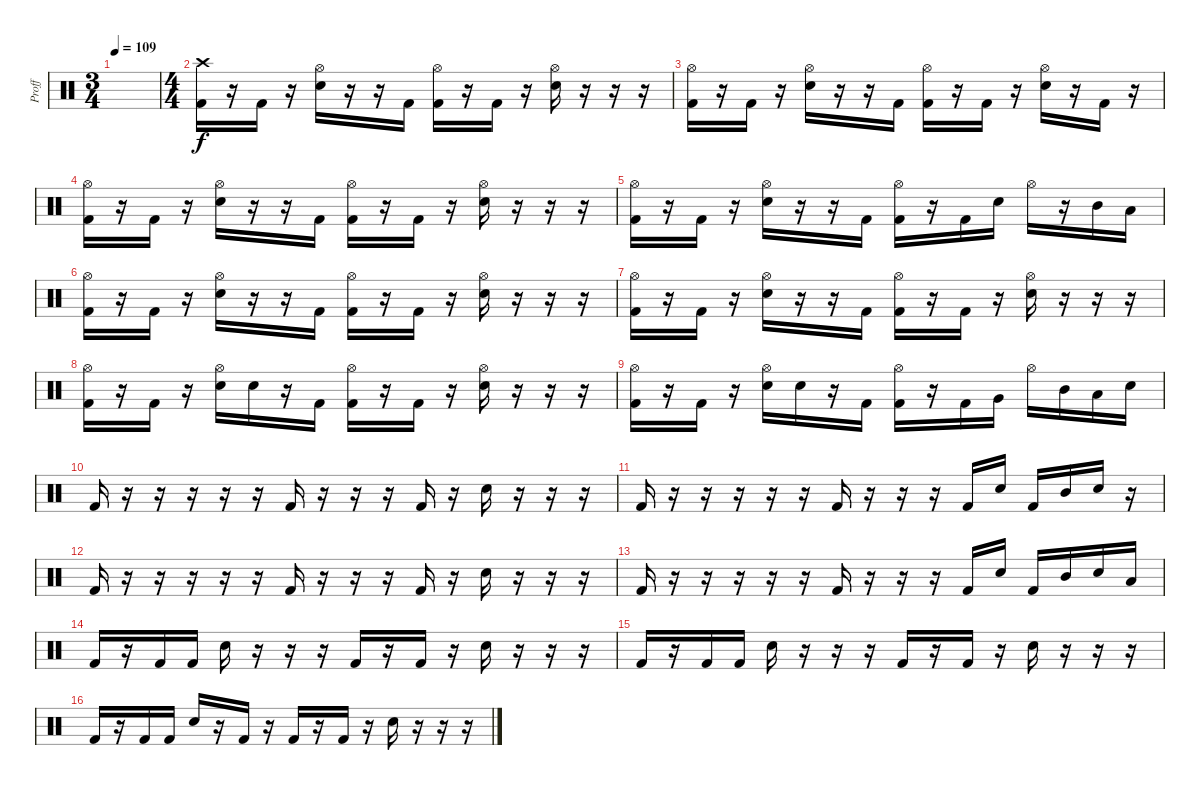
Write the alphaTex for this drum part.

\track ("Proff" "Proff") {instrument percussion}
\staff {score}
\articulation defaults
\ts (3 4)
\tempo 109
\clef neutral
\ks c
|
\ts (4 4)
("Crash high (hit)" "Kick (hit) 2").16 r.16 "Kick (hit) 2".16 r.16 ("Hi-Hat (open)" "Electric Snare (hit)").16 r.16 r.16 "Kick (hit) 2".16 ("Hi-Hat (open)" "Kick (hit) 2").16 r.16 "Kick (hit) 2".16 r.16 ("Hi-Hat (open)" "Electric Snare (hit)").16 r.16 r.16 r.16 |
("Hi-Hat (open)" "Kick (hit) 2").16 r.16 "Kick (hit) 2".16 r.16 ("Hi-Hat (open)" "Electric Snare (hit)").16 r.16 r.16 "Kick (hit) 2".16 ("Hi-Hat (open)" "Kick (hit) 2").16 r.16 "Kick (hit) 2".16 r.16 ("Hi-Hat (open)" "Electric Snare (hit)").16 r.16 "Kick (hit) 2".16 r.16 |
("Hi-Hat (open)" "Kick (hit) 2").16 r.16 "Kick (hit) 2".16 r.16 ("Hi-Hat (open)" "Electric Snare (hit)").16 r.16 r.16 "Kick (hit) 2".16 ("Hi-Hat (open)" "Kick (hit) 2").16 r.16 "Kick (hit) 2".16 r.16 ("Hi-Hat (open)" "Electric Snare (hit)").16 r.16 r.16 r.16 |
("Hi-Hat (open)" "Kick (hit) 2").16 r.16 "Kick (hit) 2".16 r.16 ("Hi-Hat (open)" "Electric Snare (hit)").16 r.16 r.16 "Kick (hit) 2".16 ("Hi-Hat (open)" "Kick (hit) 2").16 r.16 "Kick (hit) 2".16 "Electric Snare (hit)".16 "Hi-Hat (open)".16 r.16 "Mid Tom (hit)".16 "Low Tom (hit)".16 |
("Hi-Hat (open)" "Kick (hit) 2").16 r.16 "Kick (hit) 2".16 r.16 ("Hi-Hat (open)" "Electric Snare (hit)").16 r.16 r.16 "Kick (hit) 2".16 ("Hi-Hat (open)" "Kick (hit) 2").16 r.16 "Kick (hit) 2".16 r.16 ("Hi-Hat (open)" "Electric Snare (hit)").16 r.16 r.16 r.16 |
("Hi-Hat (open)" "Kick (hit) 2").16 r.16 "Kick (hit) 2".16 r.16 ("Hi-Hat (open)" "Electric Snare (hit)").16 r.16 r.16 "Kick (hit) 2".16 ("Hi-Hat (open)" "Kick (hit) 2").16 r.16 "Kick (hit) 2".16 r.16 ("Hi-Hat (open)" "Electric Snare (hit)").16 r.16 r.16 r.16 |
("Hi-Hat (open)" "Kick (hit) 2").16 r.16 "Kick (hit) 2".16 r.16 ("Hi-Hat (open)" "Electric Snare (hit)").16 "Electric Snare (hit)".16 r.16 "Kick (hit) 2".16 ("Hi-Hat (open)" "Kick (hit) 2").16 r.16 "Kick (hit) 2".16 r.16 ("Hi-Hat (open)" "Electric Snare (hit)").16 r.16 r.16 r.16 |
("Hi-Hat (open)" "Kick (hit) 2").16 r.16 "Kick (hit) 2".16 r.16 ("Hi-Hat (open)" "Electric Snare (hit)").16 "Electric Snare (hit)".16 r.16 "Kick (hit) 2".16 ("Hi-Hat (open)" "Kick (hit) 2").16 r.16 "Kick (hit) 2".16 "Very Low Tom (hit)".16 "Hi-Hat (open)".16 "Mid Tom (hit)".16 "Low Tom (hit)".16 "Electric Snare (hit)".16 |
"Kick (hit) 2".16 r.16 r.16 r.16 r.16 r.16 "Kick (hit) 2".16 r.16 r.16 r.16 "Kick (hit) 2".16 r.16 "Electric Snare (hit)".16 r.16 r.16 r.16 |
"Kick (hit) 2".16 r.16 r.16 r.16 r.16 r.16 "Kick (hit) 2".16 r.16 r.16 r.16 "Kick (hit) 2".16 "Electric Snare (hit)".16 "Kick (hit) 2".16 "Mid Tom (hit)".16 "Electric Snare (hit)".16 r.16 |
"Kick (hit) 2".16 r.16 r.16 r.16 r.16 r.16 "Kick (hit) 2".16 r.16 r.16 r.16 "Kick (hit) 2".16 r.16 "Electric Snare (hit)".16 r.16 r.16 r.16 |
"Kick (hit) 2".16 r.16 r.16 r.16 r.16 r.16 "Kick (hit) 2".16 r.16 r.16 r.16 "Kick (hit) 2".16 "Electric Snare (hit)".16 "Kick (hit) 2".16 "Mid Tom (hit)".16 "Electric Snare (hit)".16 "Low Tom (hit)".16 |
"Kick (hit) 2".16 r.16 "Kick (hit) 2".16 "Kick (hit) 2".16 "Electric Snare (hit)".16 r.16 r.16 r.16 "Kick (hit) 2".16 r.16 "Kick (hit) 2".16 r.16 "Electric Snare (hit)".16 r.16 r.16 r.16 |
"Kick (hit) 2".16 r.16 "Kick (hit) 2".16 "Kick (hit) 2".16 "Electric Snare (hit)".16 r.16 r.16 r.16 "Kick (hit) 2".16 r.16 "Kick (hit) 2".16 r.16 "Electric Snare (hit)".16 r.16 r.16 r.16 |
"Kick (hit) 2".16 r.16 "Kick (hit) 2".16 "Kick (hit) 2".16 "Electric Snare (hit)".16 r.16 "Kick (hit) 2".16 r.16 "Kick (hit) 2".16 r.16 "Kick (hit) 2".16 r.16 "Electric Snare (hit)".16 r.16 r.16 r.16
